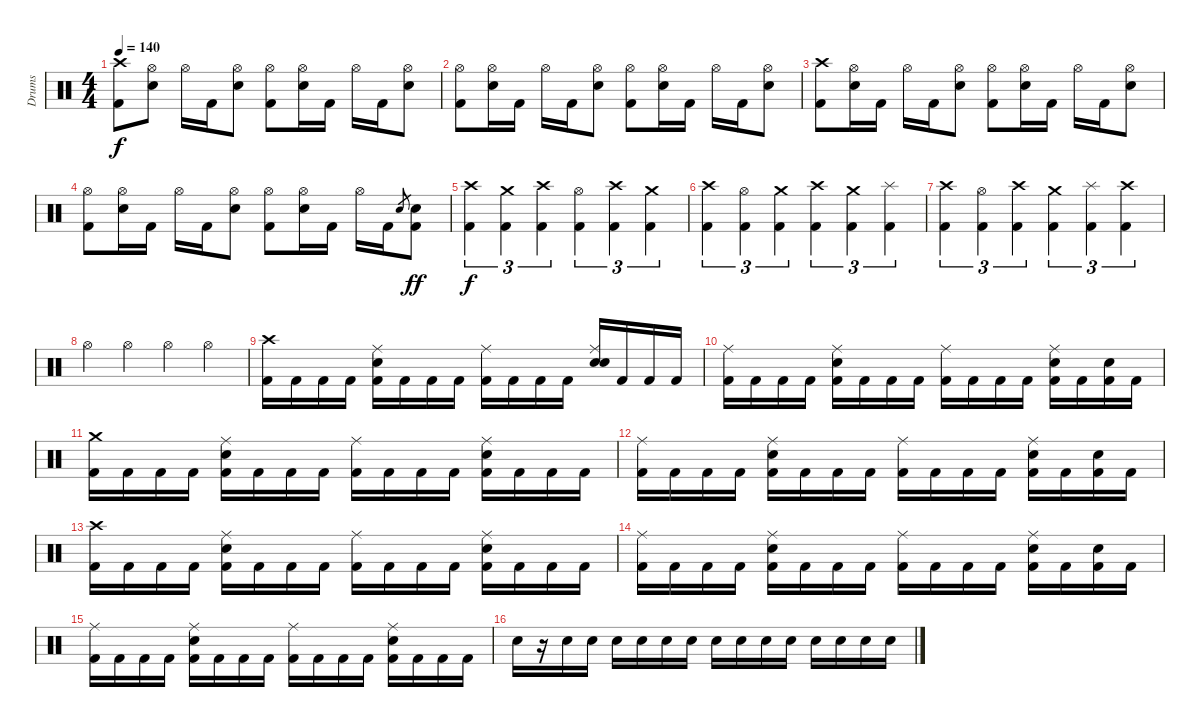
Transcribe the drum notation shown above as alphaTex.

\track ("Drums" "Drums") {instrument percussion}
\staff {score}
\articulation defaults
\ts (4 4)
\tempo 140
\clef neutral
\ks c
("Kick (hit) 2" "Crash high (hit)").8{dy f} ("Snare (hit) 2" "Hi-Hat (open)").8 "Hi-Hat (open)".16 "Kick (hit) 2".16 ("Snare (hit) 2" "Hi-Hat (open)").8 ("Kick (hit) 2" "Hi-Hat (open)").8 ("Hi-Hat (open)" "Snare (hit) 2").16 "Kick (hit) 2".16 "Hi-Hat (open)".16 "Kick (hit) 2".16 ("Hi-Hat (open)" "Snare (hit) 2").8 |
("Hi-Hat (open)" "Kick (hit) 2").8 ("Hi-Hat (open)" "Snare (hit) 2").16 "Kick (hit) 2".16 "Hi-Hat (open)".16 "Kick (hit) 2".16 ("Hi-Hat (open)" "Snare (hit) 2").8 ("Hi-Hat (open)" "Kick (hit) 2").8 ("Snare (hit) 2" "Hi-Hat (open)").16 "Kick (hit) 2".16 "Hi-Hat (open)".16 "Kick (hit) 2".16 ("Snare (hit) 2" "Hi-Hat (open)").8 |
("Kick (hit) 2" "Crash high (hit)").8 ("Hi-Hat (open)" "Snare (hit) 2").16 "Kick (hit) 2".16 "Hi-Hat (open)".16 "Kick (hit) 2".16 ("Hi-Hat (open)" "Snare (hit) 2").8 ("Kick (hit) 2" "Hi-Hat (open)").8 ("Snare (hit) 2" "Hi-Hat (open)").16 "Kick (hit) 2".16 "Hi-Hat (open)".16 "Kick (hit) 2".16 ("Snare (hit) 2" "Hi-Hat (open)").8 |
("Hi-Hat (open)" "Kick (hit) 2").8 ("Hi-Hat (open)" "Snare (hit) 2").16 "Kick (hit) 2".16 "Hi-Hat (open)".16 "Kick (hit) 2".16 ("Snare (hit) 2" "Hi-Hat (open)").8 ("Hi-Hat (open)" "Kick (hit) 2").8 ("Hi-Hat (open)" "Snare (hit) 2").16 "Kick (hit) 2".16 "Hi-Hat (open)".16 "Kick (hit) 2".16 "Snare (hit) 2".8{gr} ("Kick (hit) 2" "Snare (hit) 2").8{dy ff} |
("Crash high (hit)" "Kick (hit) 2").4{tu (3 2) dy f} ("Crash medium (hit)" "Kick (hit) 2").4{tu (3 2)} ("Crash high (hit)" "Kick (hit) 2").4{tu (3 2)} ("Hi-Hat (open)" "Kick (hit) 2").4{tu (3 2)} ("Crash high (hit)" "Kick (hit) 2").4{tu (3 2)} ("Crash medium (hit)" "Kick (hit) 2").4{tu (3 2)} |
("Crash high (hit)" "Kick (hit) 2").4{tu (3 2)} ("Hi-Hat (open)" "Kick (hit) 2").4{tu (3 2)} ("Crash medium (hit)" "Kick (hit) 2").4{tu (3 2)} ("Crash high (hit)" "Kick (hit) 2").4{tu (3 2)} ("Crash medium (hit)" "Kick (hit) 2").4{tu (3 2)} ("Splash (hit)" "Kick (hit) 2").4{tu (3 2)} |
("Crash high (hit)" "Kick (hit) 2").4{tu (3 2)} ("Hi-Hat (open)" "Kick (hit) 2").4{tu (3 2)} ("Crash high (hit)" "Kick (hit) 2").4{tu (3 2)} ("Crash medium (hit)" "Kick (hit) 2").4{tu (3 2)} ("Splash (hit)" "Kick (hit) 2").4{tu (3 2)} ("Crash high (hit)" "Kick (hit) 2").4{tu (3 2)} |
"Hi-Hat (open)".4 "Hi-Hat (open)".4 "Hi-Hat (open)".4 "Hi-Hat (open)".4 |
("Crash high (hit)" "Kick (hit) 2").16 "Kick (hit) 2".16 "Kick (hit) 2".16 "Kick (hit) 2".16 ("Kick (hit) 2" "Snare (hit) 2" "Ride (middle)").16 "Kick (hit) 2".16 "Kick (hit) 2".16 "Kick (hit) 2".16 ("Kick (hit) 2" "Ride (middle)").16 "Kick (hit) 2".16 "Kick (hit) 2".16 "Kick (hit) 2".16 ("Electric Snare (hit)" "Snare (hit) 2" "Ride (middle)").16 "Kick (hit) 2".16 "Kick (hit) 2".16 "Kick (hit) 2".16 |
("Kick (hit) 2" "Ride (middle)").16 "Kick (hit) 2".16 "Kick (hit) 2".16 "Kick (hit) 2".16 ("Ride (middle)" "Snare (hit) 2" "Kick (hit) 2").16 "Kick (hit) 2".16 "Kick (hit) 2".16 "Kick (hit) 2".16 ("Kick (hit) 2" "Ride (middle)").16 "Kick (hit) 2".16 "Kick (hit) 2".16 "Kick (hit) 2".16 ("Kick (hit) 2" "Ride (middle)" "Snare (hit) 2").16 "Kick (hit) 2".16 ("Kick (hit) 2" "Snare (hit) 2").16 "Kick (hit) 2".16 |
("Kick (hit) 2" "Crash medium (hit)").16 "Kick (hit) 2".16 "Kick (hit) 2".16 "Kick (hit) 2".16 ("Kick (hit) 2" "Ride (middle)" "Snare (hit) 2").16 "Kick (hit) 2".16 "Kick (hit) 2".16 "Kick (hit) 2".16 ("Ride (middle)" "Kick (hit) 2").16 "Kick (hit) 2".16 "Kick (hit) 2".16 "Kick (hit) 2".16 ("Ride (middle)" "Kick (hit) 2" "Snare (hit) 2").16 "Kick (hit) 2".16 "Kick (hit) 2".16 "Kick (hit) 2".16 |
("Kick (hit) 2" "Ride (middle)").16 "Kick (hit) 2".16 "Kick (hit) 2".16 "Kick (hit) 2".16 ("Kick (hit) 2" "Snare (hit) 2" "Ride (middle)").16 "Kick (hit) 2".16 "Kick (hit) 2".16 "Kick (hit) 2".16 ("Kick (hit) 2" "Ride (middle)").16 "Kick (hit) 2".16 "Kick (hit) 2".16 "Kick (hit) 2".16 ("Kick (hit) 2" "Snare (hit) 2" "Ride (middle)").16 "Kick (hit) 2".16 ("Kick (hit) 2" "Snare (hit) 2").16 "Kick (hit) 2".16 |
("Crash high (hit)" "Kick (hit) 2").16 "Kick (hit) 2".16 "Kick (hit) 2".16 "Kick (hit) 2".16 ("Kick (hit) 2" "Snare (hit) 2" "Ride (middle)").16 "Kick (hit) 2".16 "Kick (hit) 2".16 "Kick (hit) 2".16 ("Kick (hit) 2" "Ride (middle)").16 "Kick (hit) 2".16 "Kick (hit) 2".16 "Kick (hit) 2".16 ("Snare (hit) 2" "Ride (middle)" "Kick (hit) 2").16 "Kick (hit) 2".16 "Kick (hit) 2".16 "Kick (hit) 2".16 |
("Ride (middle)" "Kick (hit) 2").16 "Kick (hit) 2".16 "Kick (hit) 2".16 "Kick (hit) 2".16 ("Snare (hit) 2" "Kick (hit) 2" "Ride (middle)").16 "Kick (hit) 2".16 "Kick (hit) 2".16 "Kick (hit) 2".16 ("Kick (hit) 2" "Ride (middle)").16 "Kick (hit) 2".16 "Kick (hit) 2".16 "Kick (hit) 2".16 ("Snare (hit) 2" "Kick (hit) 2" "Ride (middle)").16 "Kick (hit) 2".16 ("Snare (hit) 2" "Kick (hit) 2").16 "Kick (hit) 2".16 |
("Kick (hit) 2" "Ride (middle)").16 "Kick (hit) 2".16 "Kick (hit) 2".16 "Kick (hit) 2".16 ("Snare (hit) 2" "Kick (hit) 2" "Ride (middle)").16 "Kick (hit) 2".16 "Kick (hit) 2".16 "Kick (hit) 2".16 ("Kick (hit) 2" "Ride (middle)").16 "Kick (hit) 2".16 "Kick (hit) 2".16 "Kick (hit) 2".16 ("Snare (hit) 2" "Ride (middle)" "Kick (hit) 2").16 "Kick (hit) 2".16 "Kick (hit) 2".16 "Kick (hit) 2".16 |
"Snare (hit) 2".16 r.16 "Snare (hit) 2".16 "Snare (hit) 2".16 "Snare (hit) 2".16 "Snare (hit) 2".16 "Snare (hit) 2".16 "Snare (hit) 2".16 "Snare (hit) 2".16 "Snare (hit) 2".16 "Snare (hit) 2".16 "Snare (hit) 2".16 "Snare (hit) 2".16 "Snare (hit) 2".16 "Snare (hit) 2".16 "Snare (hit) 2".16
